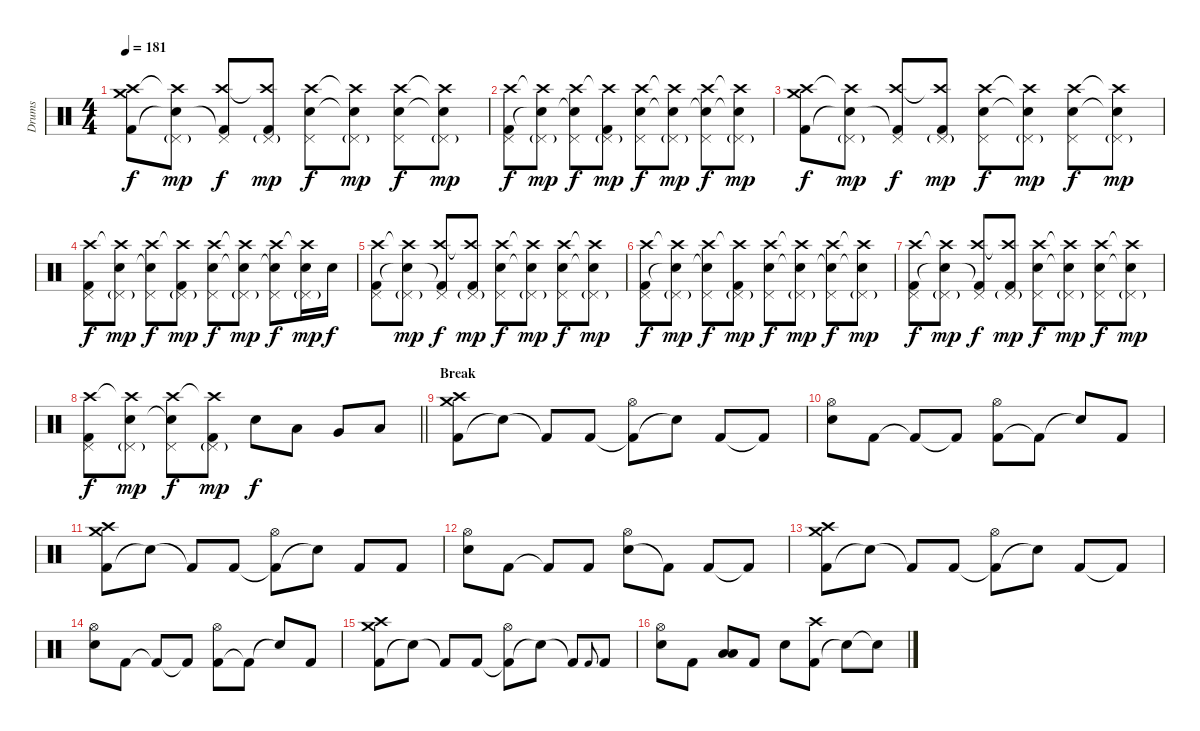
\track ("Drums" "Drums") {instrument percussion}
\staff {score}
\articulation defaults
\ts (4 4)
\tempo 181
\clef neutral
\ks c
("Kick (hit) 2" "Crash medium (hit)" "Crash high (hit)").8{dy f} ("Snare (hit)"{t} "Pedal Hi-Hat (hit)"{g} "Crash high (hit)"{t}).8{dy mp} ("Kick (hit) 2"{t} "Pedal Hi-Hat (hit)" "Crash high (hit)").8{dy f} ("Kick (hit) 2" "Pedal Hi-Hat (hit)"{g} "Crash high (hit)"{t}).8{dy mp} ("Electric Snare (hit)" "Pedal Hi-Hat (hit)" "Crash high (hit)").8{dy f} ("Electric Snare (hit)"{t} "Pedal Hi-Hat (hit)"{g} "Crash high (hit)"{t}).8{dy mp} ("Electric Snare (hit)" "Pedal Hi-Hat (hit)" "Crash high (hit)").8{dy f} ("Snare (hit)"{t} "Pedal Hi-Hat (hit)"{g} "Crash high (hit)"{t}).8{dy mp} |
("Kick (hit) 2" "Pedal Hi-Hat (hit)" "Crash high (hit)").8{dy f} ("Snare (hit)"{t} "Pedal Hi-Hat (hit)"{g} "Crash high (hit)"{t}).8{dy mp} ("Snare (hit)"{t} "Pedal Hi-Hat (hit)" "Crash high (hit)").8{dy f} ("Kick (hit) 2" "Pedal Hi-Hat (hit)"{g} "Crash high (hit)"{t}).8{dy mp} ("Electric Snare (hit)" "Pedal Hi-Hat (hit)" "Crash high (hit)").8{dy f} ("Snare (hit)"{t} "Pedal Hi-Hat (hit)"{g} "Crash high (hit)"{t}).8{dy mp} ("Snare (hit)"{t} "Pedal Hi-Hat (hit)" "Crash high (hit)").8{dy f} ("Snare (hit)"{t} "Pedal Hi-Hat (hit)"{g} "Crash high (hit)"{t}).8{dy mp} |
("Kick (hit) 2" "Crash medium (hit)" "Crash high (hit)").8{dy f} ("Snare (hit)"{t} "Pedal Hi-Hat (hit)"{g} "Crash high (hit)"{t}).8{dy mp} ("Kick (hit) 2"{t} "Pedal Hi-Hat (hit)" "Crash high (hit)").8{dy f} ("Kick (hit) 2" "Pedal Hi-Hat (hit)"{g} "Crash high (hit)"{t}).8{dy mp} ("Electric Snare (hit)" "Pedal Hi-Hat (hit)" "Crash high (hit)").8{dy f} ("Electric Snare (hit)"{t} "Pedal Hi-Hat (hit)"{g} "Crash high (hit)"{t}).8{dy mp} ("Electric Snare (hit)" "Pedal Hi-Hat (hit)" "Crash high (hit)").8{dy f} ("Snare (hit)"{t} "Pedal Hi-Hat (hit)"{g} "Crash high (hit)"{t}).8{dy mp} |
("Kick (hit) 2" "Pedal Hi-Hat (hit)" "Crash high (hit)").8{dy f} ("Electric Snare (hit)" "Pedal Hi-Hat (hit)"{g} "Crash high (hit)"{t}).8{dy mp} ("Snare (hit)"{t} "Pedal Hi-Hat (hit)" "Crash high (hit)").8{dy f} ("Kick (hit) 2" "Pedal Hi-Hat (hit)"{g} "Crash high (hit)"{t}).8{dy mp} ("Electric Snare (hit)" "Pedal Hi-Hat (hit)" "Crash high (hit)").8{dy f} ("Snare (hit)"{t} "Pedal Hi-Hat (hit)"{g} "Crash high (hit)"{t}).8{dy mp} ("Snare (hit)"{t} "Pedal Hi-Hat (hit)" "Crash high (hit)").8{dy f} ("Electric Snare (hit)" "Pedal Hi-Hat (hit)"{g} "Crash high (hit)"{t}).16{dy mp} "Electric Snare (hit)".16{dy f} |
("Kick (hit) 2" "Pedal Hi-Hat (hit)" "Crash high (hit)").8 ("Snare (hit)"{t} "Pedal Hi-Hat (hit)"{g} "Crash high (hit)"{t}).8{dy mp} ("Kick (hit) 2"{t} "Pedal Hi-Hat (hit)" "Crash high (hit)").8{dy f} ("Kick (hit) 2" "Pedal Hi-Hat (hit)"{g} "Crash high (hit)"{t}).8{dy mp} ("Electric Snare (hit)" "Pedal Hi-Hat (hit)" "Crash high (hit)").8{dy f} ("Electric Snare (hit)"{t} "Pedal Hi-Hat (hit)"{g} "Crash high (hit)"{t}).8{dy mp} ("Electric Snare (hit)" "Pedal Hi-Hat (hit)" "Crash high (hit)").8{dy f} ("Snare (hit)"{t} "Pedal Hi-Hat (hit)"{g} "Crash high (hit)"{t}).8{dy mp} |
("Kick (hit) 2" "Pedal Hi-Hat (hit)" "Crash high (hit)").8{dy f} ("Snare (hit)"{t} "Pedal Hi-Hat (hit)"{g} "Crash high (hit)"{t}).8{dy mp} ("Snare (hit)"{t} "Pedal Hi-Hat (hit)" "Crash high (hit)").8{dy f} ("Kick (hit) 2" "Pedal Hi-Hat (hit)"{g} "Crash high (hit)"{t}).8{dy mp} ("Electric Snare (hit)" "Pedal Hi-Hat (hit)" "Crash high (hit)").8{dy f} ("Snare (hit)"{t} "Pedal Hi-Hat (hit)"{g} "Crash high (hit)"{t}).8{dy mp} ("Snare (hit)"{t} "Pedal Hi-Hat (hit)" "Crash high (hit)").8{dy f} ("Snare (hit)"{t} "Pedal Hi-Hat (hit)"{g} "Crash high (hit)"{t}).8{dy mp} |
("Kick (hit) 2" "Pedal Hi-Hat (hit)" "Crash high (hit)").8{dy f} ("Snare (hit)"{t} "Pedal Hi-Hat (hit)"{g} "Crash high (hit)"{t}).8{dy mp} ("Kick (hit) 2"{t} "Pedal Hi-Hat (hit)" "Crash high (hit)").8{dy f} ("Kick (hit) 2" "Pedal Hi-Hat (hit)"{g} "Crash high (hit)"{t}).8{dy mp} ("Electric Snare (hit)" "Pedal Hi-Hat (hit)" "Crash high (hit)").8{dy f} ("Electric Snare (hit)"{t} "Pedal Hi-Hat (hit)"{g} "Crash high (hit)"{t}).8{dy mp} ("Electric Snare (hit)" "Pedal Hi-Hat (hit)" "Crash high (hit)").8{dy f} ("Snare (hit)"{t} "Pedal Hi-Hat (hit)"{g} "Crash high (hit)"{t}).8{dy mp} |
\barLineRight lightlight
("Kick (hit) 2" "Pedal Hi-Hat (hit)" "Crash high (hit)").8{dy f} ("Electric Snare (hit)" "Pedal Hi-Hat (hit)"{g} "Crash high (hit)"{t}).8{dy mp} ("Snare (hit)"{t} "Pedal Hi-Hat (hit)" "Crash high (hit)").8{dy f} ("Kick (hit) 2" "Pedal Hi-Hat (hit)"{g} "Crash high (hit)"{t}).8{dy mp} "Electric Snare (hit)".8{dy f} "Low Tom (hit)".8 "Very Low Tom (hit)".8 "Low Floor Tom (hit)".8 |
\section ("" "Break")
("Kick (hit) 2" "Crash medium (hit)" "Crash high (hit)").8 "Snare (hit)"{t}.8 "Kick (hit) 2"{t}.8 "Kick (hit) 2".8 ("Kick (hit) 2"{t} "Hi-Hat (open)").8 "Snare (hit)"{t}.8 "Kick (hit) 2".8 "Kick (hit) 2"{t}.8 |
("Electric Snare (hit)" "Hi-Hat (open)").8 "Kick (hit) 2".8 "Kick (hit) 2"{t}.8 "Kick (hit) 2"{t}.8 ("Kick (hit) 2" "Hi-Hat (open)").8 "Kick (hit) 2"{t}.8 "Snare (hit)"{t}.8 "Kick (hit) 2".8 |
("Kick (hit) 2" "Crash medium (hit)" "Crash high (hit)").8 "Snare (hit)"{t}.8 "Kick (hit) 2"{t}.8 "Kick (hit) 2".8 ("Kick (hit) 2"{t} "Hi-Hat (open)").8 "Snare (hit)"{t}.8 "Kick (hit) 2".8 "Kick (hit) 2".8 |
("Electric Snare (hit)" "Hi-Hat (open)").8 "Kick (hit) 2".8 "Kick (hit) 2"{t}.8 "Kick (hit) 2".8 ("Electric Snare (hit)" "Hi-Hat (open)").8 "Kick (hit) 2"{t}.8 "Kick (hit) 2".8 "Kick (hit) 2"{t}.8 |
("Kick (hit) 2" "Crash medium (hit)" "Crash high (hit)").8 "Snare (hit)"{t}.8 "Kick (hit) 2"{t}.8 "Kick (hit) 2".8 ("Kick (hit) 2"{t} "Hi-Hat (open)").8 "Snare (hit)"{t}.8 "Kick (hit) 2".8 "Kick (hit) 2"{t}.8 |
("Electric Snare (hit)" "Hi-Hat (open)").8 "Kick (hit) 2".8 "Kick (hit) 2"{t}.8 "Kick (hit) 2"{t}.8 ("Kick (hit) 2" "Hi-Hat (open)").8 "Kick (hit) 2"{t}.8 "Snare (hit)"{t}.8 "Kick (hit) 2".8 |
("Kick (hit) 2" "Crash medium (hit)" "Crash high (hit)").8 "Snare (hit)"{t}.8 "Kick (hit) 2"{t}.8 "Kick (hit) 2".8 ("Kick (hit) 2"{t} "Hi-Hat (open)").8 "Snare (hit)"{t}.8 "Kick (hit) 2"{t}.8 "Kick (hit) 2".8{gr onbeat} "Kick (hit) 2".8 |
("Electric Snare (hit)" "Hi-Hat (open)").8 "Kick (hit) 2".8 ("Low Tom (hit)" "Low Floor Tom (hit)").8 "Kick (hit) 2".8 "Electric Snare (hit)".8 ("Kick (hit) 2" "Crash high (hit)").8 "Electric Snare (hit)"{t}.8 "Electric Snare (hit)"{t}.8
